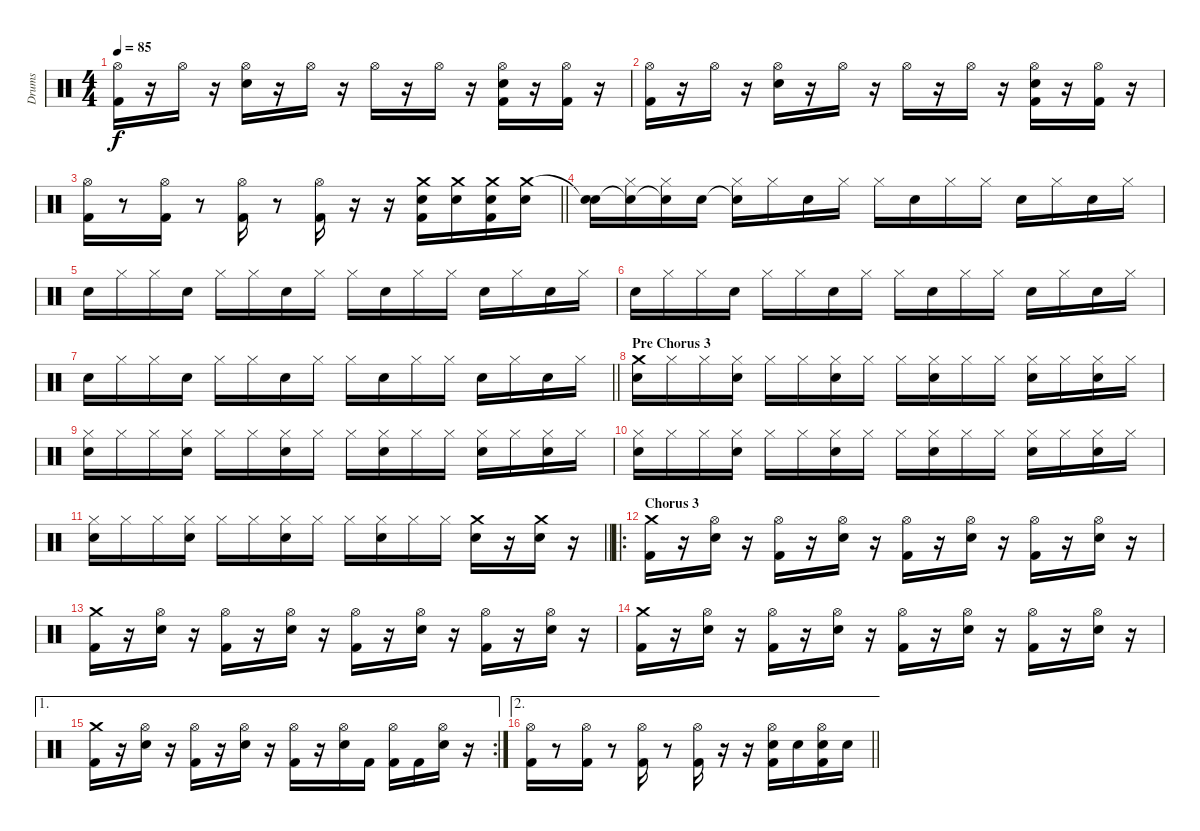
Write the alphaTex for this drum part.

\track ("Drums" "Drums") {instrument percussion}
\staff {score}
\articulation defaults
\ts (4 4)
\tempo 85
\clef neutral
\ks c
("Hi-Hat (open)" "Kick (hit) 2").16{dy f} r.16 "Hi-Hat (open)".16 r.16 ("Hi-Hat (open)" "Snare (hit) 2").16 r.16 "Hi-Hat (open)".16 r.16 "Hi-Hat (open)".16 r.16 "Hi-Hat (open)".16 r.16 ("Hi-Hat (open)" "Snare (hit) 2" "Kick (hit) 2").16 r.16 ("Hi-Hat (open)" "Kick (hit) 2").16 r.16 |
("Hi-Hat (open)" "Kick (hit) 2").16 r.16 "Hi-Hat (open)".16 r.16 ("Hi-Hat (open)" "Snare (hit) 2").16 r.16 "Hi-Hat (open)".16 r.16 "Hi-Hat (open)".16 r.16 "Hi-Hat (open)".16 r.16 ("Hi-Hat (open)" "Snare (hit) 2" "Kick (hit) 2").16 r.16 ("Hi-Hat (open)" "Kick (hit) 2").16 r.16 |
\barLineRight lightlight
("Hi-Hat (open)" "Kick (hit) 2").16 r.8 ("Hi-Hat (open)" "Kick (hit) 2").16 r.8 ("Hi-Hat (open)" "Kick (hit) 2").16 r.8 ("Hi-Hat (open)" "Kick (hit) 2").16 r.16 r.16 ("Crash medium (hit)" "Snare (hit) 2" "Kick (hit) 2").16 ("Crash medium (hit)" "Snare (hit) 2").16 ("Crash medium (hit)" "Snare (hit) 2" "Kick (hit) 2").16 ("Crash medium (hit)" "Snare (hit) 2").16 |
("Snare (hit)"{t} "Snare (hit) 2").16 ("Snare (hit)"{t} "Hi-Hat (closed)").16 ("Snare (hit)"{t} "Hi-Hat (closed)").16 "Snare (hit) 2".16 ("Snare (hit)"{t} "Hi-Hat (closed)").16 "Hi-Hat (closed)".16 "Snare (hit) 2".16 "Hi-Hat (closed)".16 "Hi-Hat (closed)".16 "Snare (hit) 2".16 "Hi-Hat (closed)".16 "Hi-Hat (closed)".16 "Snare (hit) 2".16 "Hi-Hat (closed)".16 "Snare (hit) 2".16 "Hi-Hat (closed)".16 |
"Snare (hit) 2".16 "Hi-Hat (closed)".16 "Hi-Hat (closed)".16 "Snare (hit) 2".16 "Hi-Hat (closed)".16 "Hi-Hat (closed)".16 "Snare (hit) 2".16 "Hi-Hat (closed)".16 "Hi-Hat (closed)".16 "Snare (hit) 2".16 "Hi-Hat (closed)".16 "Hi-Hat (closed)".16 "Snare (hit) 2".16 "Hi-Hat (closed)".16 "Snare (hit) 2".16 "Hi-Hat (closed)".16 |
"Snare (hit) 2".16 "Hi-Hat (closed)".16 "Hi-Hat (closed)".16 "Snare (hit) 2".16 "Hi-Hat (closed)".16 "Hi-Hat (closed)".16 "Snare (hit) 2".16 "Hi-Hat (closed)".16 "Hi-Hat (closed)".16 "Snare (hit) 2".16 "Hi-Hat (closed)".16 "Hi-Hat (closed)".16 "Snare (hit) 2".16 "Hi-Hat (closed)".16 "Snare (hit) 2".16 "Hi-Hat (closed)".16 |
\barLineRight lightlight "Snare (hit) 2".16 "Hi-Hat (closed)".16 "Hi-Hat (closed)".16 "Snare (hit) 2".16 "Hi-Hat (closed)".16 "Hi-Hat (closed)".16 "Snare (hit) 2".16 "Hi-Hat (closed)".16 "Hi-Hat (closed)".16 "Snare (hit) 2".16 "Hi-Hat (closed)".16 "Hi-Hat (closed)".16 "Snare (hit) 2".16 "Hi-Hat (closed)".16 "Snare (hit) 2".16 "Hi-Hat (closed)".16
|
\section ("" "Pre Chorus 3")
("Crash medium (hit)" "Snare (hit) 2").16 "Hi-Hat (closed)".16 "Hi-Hat (closed)".16 ("Hi-Hat (closed)" "Snare (hit) 2").16 "Hi-Hat (closed)".16 "Hi-Hat (closed)".16 ("Hi-Hat (closed)" "Snare (hit) 2").16 "Hi-Hat (closed)".16 "Hi-Hat (closed)".16 ("Hi-Hat (closed)" "Snare (hit) 2").16 "Hi-Hat (closed)".16 "Hi-Hat (closed)".16 ("Hi-Hat (closed)" "Snare (hit) 2").16 "Hi-Hat (closed)".16 ("Hi-Hat (closed)" "Snare (hit) 2").16 "Hi-Hat (closed)".16 |
("Hi-Hat (closed)" "Snare (hit) 2").16 "Hi-Hat (closed)".16 "Hi-Hat (closed)".16 ("Hi-Hat (closed)" "Snare (hit) 2").16 "Hi-Hat (closed)".16 "Hi-Hat (closed)".16 ("Hi-Hat (closed)" "Snare (hit) 2").16 "Hi-Hat (closed)".16 "Hi-Hat (closed)".16 ("Hi-Hat (closed)" "Snare (hit) 2").16 "Hi-Hat (closed)".16 "Hi-Hat (closed)".16 ("Hi-Hat (closed)" "Snare (hit) 2").16 "Hi-Hat (closed)".16 ("Hi-Hat (closed)" "Snare (hit) 2").16 "Hi-Hat (closed)".16 |
("Hi-Hat (closed)" "Snare (hit) 2").16 "Hi-Hat (closed)".16 "Hi-Hat (closed)".16 ("Hi-Hat (closed)" "Snare (hit) 2").16 "Hi-Hat (closed)".16 "Hi-Hat (closed)".16 ("Hi-Hat (closed)" "Snare (hit) 2").16 "Hi-Hat (closed)".16 "Hi-Hat (closed)".16 ("Hi-Hat (closed)" "Snare (hit) 2").16 "Hi-Hat (closed)".16 "Hi-Hat (closed)".16 ("Hi-Hat (closed)" "Snare (hit) 2").16 "Hi-Hat (closed)".16 ("Hi-Hat (closed)" "Snare (hit) 2").16 "Hi-Hat (closed)".16 |
\barLineRight lightlight
("Hi-Hat (closed)" "Snare (hit) 2").16 "Hi-Hat (closed)".16 "Hi-Hat (closed)".16 ("Hi-Hat (closed)" "Snare (hit) 2").16 "Hi-Hat (closed)".16 "Hi-Hat (closed)".16 ("Hi-Hat (closed)" "Snare (hit) 2").16 "Hi-Hat (closed)".16 "Hi-Hat (closed)".16 ("Hi-Hat (closed)" "Snare (hit) 2").16 "Hi-Hat (closed)".16 "Hi-Hat (closed)".16 ("Crash medium (hit)" "Snare (hit) 2").16 r.16 ("Crash medium (hit)" "Snare (hit) 2").16 r.16 |
\ro
\section ("" "Chorus 3")
("Crash medium (hit)" "Kick (hit) 2").16 r.16 ("Hi-Hat (open)" "Snare (hit) 2").16 r.16 ("Hi-Hat (open)" "Kick (hit) 2").16 r.16 ("Hi-Hat (open)" "Snare (hit) 2").16 r.16 ("Hi-Hat (open)" "Kick (hit) 2").16 r.16 ("Hi-Hat (open)" "Snare (hit) 2").16 r.16 ("Hi-Hat (open)" "Kick (hit) 2").16 r.16 ("Hi-Hat (open)" "Snare (hit) 2").16 r.16 |
("Crash medium (hit)" "Kick (hit) 2").16 r.16 ("Hi-Hat (open)" "Snare (hit) 2").16 r.16 ("Hi-Hat (open)" "Kick (hit) 2").16 r.16 ("Hi-Hat (open)" "Snare (hit) 2").16 r.16 ("Hi-Hat (open)" "Kick (hit) 2").16 r.16 ("Hi-Hat (open)" "Snare (hit) 2").16 r.16 ("Hi-Hat (open)" "Kick (hit) 2").16 r.16 ("Hi-Hat (open)" "Snare (hit) 2").16 r.16 |
("Crash medium (hit)" "Kick (hit) 2").16 r.16 ("Hi-Hat (open)" "Snare (hit) 2").16 r.16 ("Hi-Hat (open)" "Kick (hit) 2").16 r.16 ("Hi-Hat (open)" "Snare (hit) 2").16 r.16 ("Hi-Hat (open)" "Kick (hit) 2").16 r.16 ("Hi-Hat (open)" "Snare (hit) 2").16 r.16 ("Hi-Hat (open)" "Kick (hit) 2").16 r.16 ("Hi-Hat (open)" "Snare (hit) 2").16 r.16 |
\ae 1
\rc 2
("Crash medium (hit)" "Kick (hit) 2").16 r.16 ("Hi-Hat (open)" "Snare (hit) 2").16 r.16 ("Hi-Hat (open)" "Kick (hit) 2").16 r.16 ("Hi-Hat (open)" "Snare (hit) 2").16 r.16 ("Hi-Hat (open)" "Kick (hit) 2").16 r.16 ("Hi-Hat (open)" "Snare (hit) 2").16 "Kick (hit) 2".16 ("Hi-Hat (open)" "Kick (hit) 2").16 "Kick (hit) 2".16 ("Hi-Hat (open)" "Snare (hit) 2").16 r.16 |
\ae 2
\barLineRight lightlight
("Hi-Hat (open)" "Kick (hit) 2").16 r.8 ("Hi-Hat (open)" "Kick (hit) 2").16 r.8 ("Hi-Hat (open)" "Kick (hit) 2").16 r.8 ("Hi-Hat (open)" "Kick (hit) 2").16 r.16 r.16 ("Hi-Hat (open)" "Snare (hit) 2" "Kick (hit) 2").16 "Snare (hit) 2".16 ("Hi-Hat (open)" "Snare (hit) 2" "Kick (hit) 2").16 "Snare (hit) 2".16
